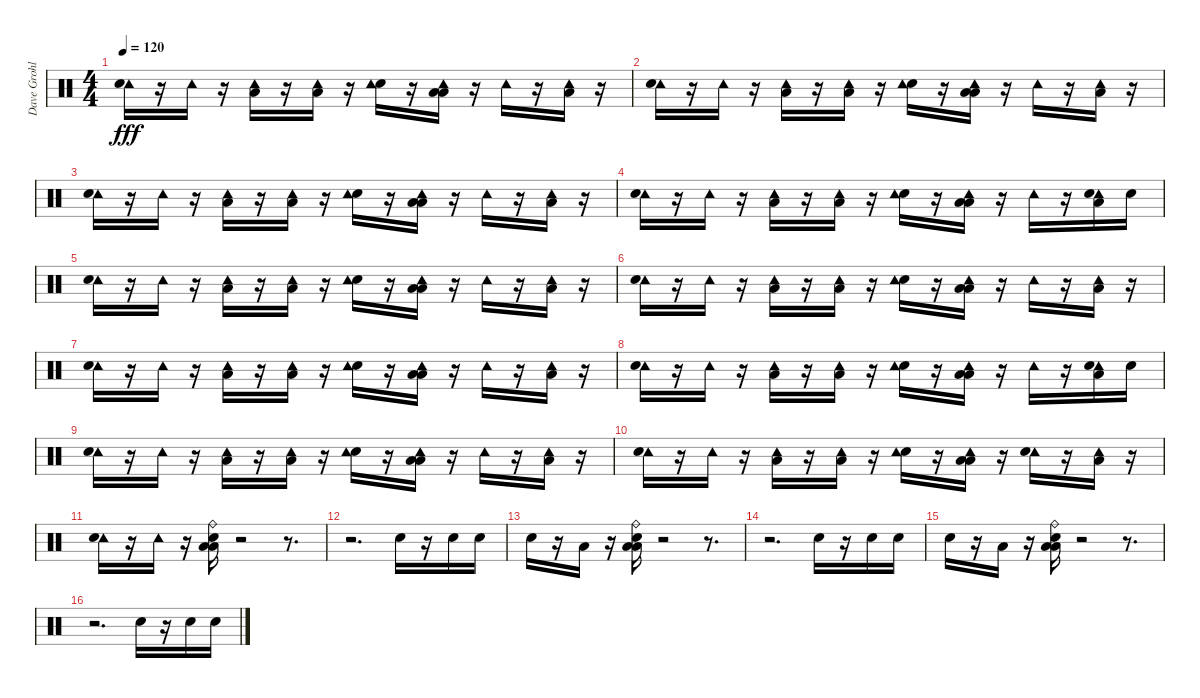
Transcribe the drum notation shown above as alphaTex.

\track ("Dave Grohl " "Dave Grohl") {instrument percussion}
\staff {score}
\articulation defaults
\ts (4 4)
\tempo 120
\clef neutral
\ks c
("Tambourine (hit)" "Snare (hit) 2").16{dy fff} r.16 "Tambourine (hit)".16 r.16 ("Low Floor Tom (hit)" "Tambourine (hit)").16 r.16 ("Low Floor Tom (hit)" "Tambourine (hit)").16 r.16 ("Snare (hit) 2" "Tambourine (hit)").16 r.16 ("Tambourine (hit)" "Low Floor Tom (hit)" "Low Tom (hit)").16 r.16 "Tambourine (hit)".16 r.16 ("Tambourine (hit)" "Low Floor Tom (hit)").16 r.16 |
("Tambourine (hit)" "Snare (hit) 2").16 r.16 "Tambourine (hit)".16 r.16 ("Low Floor Tom (hit)" "Tambourine (hit)").16 r.16 ("Low Floor Tom (hit)" "Tambourine (hit)").16 r.16 ("Snare (hit) 2" "Tambourine (hit)").16 r.16 ("Tambourine (hit)" "Low Floor Tom (hit)" "Low Tom (hit)").16 r.16 "Tambourine (hit)".16 r.16 ("Tambourine (hit)" "Low Floor Tom (hit)").16 r.16 |
("Tambourine (hit)" "Snare (hit) 2").16 r.16 "Tambourine (hit)".16 r.16 ("Low Floor Tom (hit)" "Tambourine (hit)").16 r.16 ("Low Floor Tom (hit)" "Tambourine (hit)").16 r.16 ("Snare (hit) 2" "Tambourine (hit)").16 r.16 ("Tambourine (hit)" "Low Floor Tom (hit)" "Low Tom (hit)").16 r.16 "Tambourine (hit)".16 r.16 ("Tambourine (hit)" "Low Floor Tom (hit)").16 r.16 |
("Tambourine (hit)" "Snare (hit) 2").16 r.16 "Tambourine (hit)".16 r.16 ("Low Floor Tom (hit)" "Tambourine (hit)").16 r.16 ("Low Floor Tom (hit)" "Tambourine (hit)").16 r.16 ("Snare (hit) 2" "Tambourine (hit)").16 r.16 ("Tambourine (hit)" "Low Floor Tom (hit)" "Low Tom (hit)").16 r.16 "Tambourine (hit)".16 r.16 ("Tambourine (hit)" "Low Floor Tom (hit)" "Snare (hit) 2").16 "Snare (hit) 2".16 |
("Tambourine (hit)" "Snare (hit) 2").16 r.16 "Tambourine (hit)".16 r.16 ("Low Floor Tom (hit)" "Tambourine (hit)").16 r.16 ("Low Floor Tom (hit)" "Tambourine (hit)").16 r.16 ("Snare (hit) 2" "Tambourine (hit)").16 r.16 ("Tambourine (hit)" "Low Floor Tom (hit)" "Low Tom (hit)").16 r.16 "Tambourine (hit)".16 r.16 ("Tambourine (hit)" "Low Floor Tom (hit)").16 r.16 |
("Tambourine (hit)" "Snare (hit) 2").16 r.16 "Tambourine (hit)".16 r.16 ("Low Floor Tom (hit)" "Tambourine (hit)").16 r.16 ("Low Floor Tom (hit)" "Tambourine (hit)").16 r.16 ("Snare (hit) 2" "Tambourine (hit)").16 r.16 ("Tambourine (hit)" "Low Floor Tom (hit)" "Low Tom (hit)").16 r.16 "Tambourine (hit)".16 r.16 ("Tambourine (hit)" "Low Floor Tom (hit)").16 r.16 |
("Tambourine (hit)" "Snare (hit) 2").16 r.16 "Tambourine (hit)".16 r.16 ("Low Floor Tom (hit)" "Tambourine (hit)").16 r.16 ("Low Floor Tom (hit)" "Tambourine (hit)").16 r.16 ("Snare (hit) 2" "Tambourine (hit)").16 r.16 ("Tambourine (hit)" "Low Floor Tom (hit)" "Low Tom (hit)").16 r.16 "Tambourine (hit)".16 r.16 ("Tambourine (hit)" "Low Floor Tom (hit)").16 r.16 |
("Tambourine (hit)" "Snare (hit) 2").16 r.16 "Tambourine (hit)".16 r.16 ("Low Floor Tom (hit)" "Tambourine (hit)").16 r.16 ("Low Floor Tom (hit)" "Tambourine (hit)").16 r.16 ("Snare (hit) 2" "Tambourine (hit)").16 r.16 ("Tambourine (hit)" "Low Floor Tom (hit)" "Low Tom (hit)").16 r.16 "Tambourine (hit)".16 r.16 ("Tambourine (hit)" "Low Floor Tom (hit)" "Snare (hit) 2").16 "Snare (hit) 2".16 |
("Tambourine (hit)" "Snare (hit) 2").16 r.16 "Tambourine (hit)".16 r.16 ("Low Floor Tom (hit)" "Tambourine (hit)").16 r.16 ("Low Floor Tom (hit)" "Tambourine (hit)").16 r.16 ("Snare (hit) 2" "Tambourine (hit)").16 r.16 ("Tambourine (hit)" "Low Floor Tom (hit)" "Low Tom (hit)").16 r.16 "Tambourine (hit)".16 r.16 ("Tambourine (hit)" "Low Floor Tom (hit)").16 r.16 |
("Tambourine (hit)" "Snare (hit) 2").16 r.16 "Tambourine (hit)".16 r.16 ("Low Floor Tom (hit)" "Tambourine (hit)").16 r.16 ("Low Floor Tom (hit)" "Tambourine (hit)").16 r.16 ("Snare (hit) 2" "Tambourine (hit)").16 r.16 ("Tambourine (hit)" "Low Floor Tom (hit)" "Low Tom (hit)").16 r.16 ("Tambourine (hit)" "Snare (hit) 2").16 r.16 ("Tambourine (hit)" "Low Floor Tom (hit)").16 r.16 |
("Tambourine (hit)" "Snare (hit) 2").16 r.16 "Tambourine (hit)".16 r.16 ("Snare (hit) 2" "Ride (bell)" "Low Floor Tom (hit)" "Low Tom (hit)").16 r.2 r.8{d} |
r.2{d} "Snare (hit) 2".16 r.16 "Snare (hit) 2".16 "Snare (hit) 2".16 |
"Snare (hit) 2".16 r.16 "Low Tom (hit)".16 r.16 ("Snare (hit) 2" "Ride (bell)" "Low Floor Tom (hit)" "Low Tom (hit)").16 r.2 r.8{d} |
r.2{d} "Snare (hit) 2".16 r.16 "Snare (hit) 2".16 "Snare (hit) 2".16 |
"Snare (hit) 2".16 r.16 "Low Tom (hit)".16 r.16 ("Snare (hit) 2" "Ride (bell)" "Low Floor Tom (hit)" "Low Tom (hit)").16 r.2 r.8{d} |
r.2{d} "Snare (hit) 2".16 r.16 "Snare (hit) 2".16 "Snare (hit) 2".16
